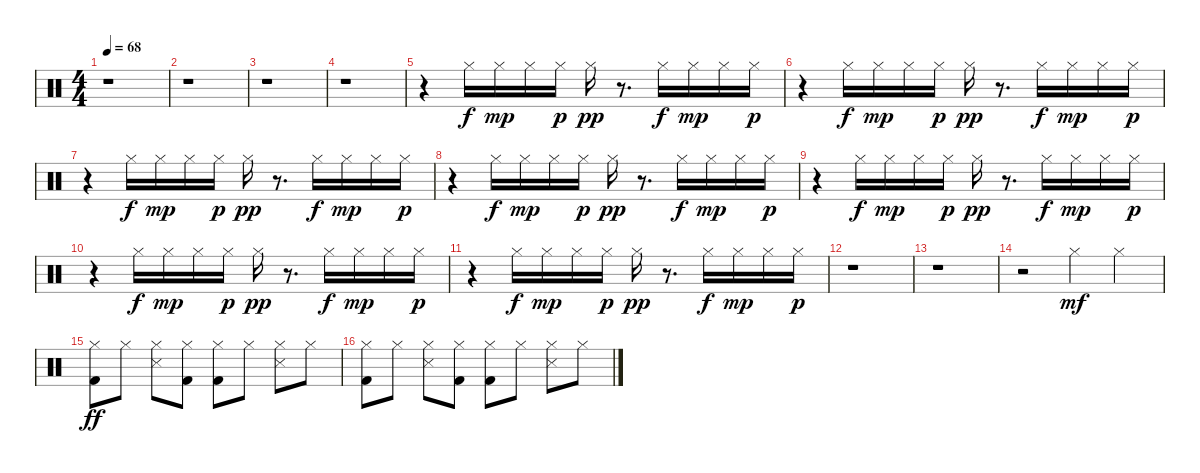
\track "" {instrument percussion}
\staff {score}
\articulation defaults
\ts (4 4)
\tempo 68
\clef neutral
\ks c
r.1{dy mf} |
r.1 |
r.1 |
r.1 |
r.4 "Hi-Hat (closed)".16{dy f} "Hi-Hat (closed)".16{dy mp} "Hi-Hat (closed)".16 "Hi-Hat (closed)".16{dy p} "Hi-Hat (closed)".16{dy pp} r.8{d} "Hi-Hat (closed)".16{dy f} "Hi-Hat (closed)".16{dy mp} "Hi-Hat (closed)".16 "Hi-Hat (closed)".16{dy p} |
r.4 "Hi-Hat (closed)".16{dy f} "Hi-Hat (closed)".16{dy mp} "Hi-Hat (closed)".16 "Hi-Hat (closed)".16{dy p} "Hi-Hat (closed)".16{dy pp} r.8{d} "Hi-Hat (closed)".16{dy f} "Hi-Hat (closed)".16{dy mp} "Hi-Hat (closed)".16 "Hi-Hat (closed)".16{dy p} |
r.4 "Hi-Hat (closed)".16{dy f} "Hi-Hat (closed)".16{dy mp} "Hi-Hat (closed)".16 "Hi-Hat (closed)".16{dy p} "Hi-Hat (closed)".16{dy pp} r.8{d} "Hi-Hat (closed)".16{dy f} "Hi-Hat (closed)".16{dy mp} "Hi-Hat (closed)".16 "Hi-Hat (closed)".16{dy p} |
r.4 "Hi-Hat (closed)".16{dy f} "Hi-Hat (closed)".16{dy mp} "Hi-Hat (closed)".16 "Hi-Hat (closed)".16{dy p} "Hi-Hat (closed)".16{dy pp} r.8{d} "Hi-Hat (closed)".16{dy f} "Hi-Hat (closed)".16{dy mp} "Hi-Hat (closed)".16 "Hi-Hat (closed)".16{dy p} |
r.4 "Hi-Hat (closed)".16{dy f} "Hi-Hat (closed)".16{dy mp} "Hi-Hat (closed)".16 "Hi-Hat (closed)".16{dy p} "Hi-Hat (closed)".16{dy pp} r.8{d} "Hi-Hat (closed)".16{dy f} "Hi-Hat (closed)".16{dy mp} "Hi-Hat (closed)".16 "Hi-Hat (closed)".16{dy p} |
r.4 "Hi-Hat (closed)".16{dy f} "Hi-Hat (closed)".16{dy mp} "Hi-Hat (closed)".16 "Hi-Hat (closed)".16{dy p} "Hi-Hat (closed)".16{dy pp} r.8{d} "Hi-Hat (closed)".16{dy f} "Hi-Hat (closed)".16{dy mp} "Hi-Hat (closed)".16 "Hi-Hat (closed)".16{dy p} |
r.4 "Hi-Hat (closed)".16{dy f} "Hi-Hat (closed)".16{dy mp} "Hi-Hat (closed)".16 "Hi-Hat (closed)".16{dy p} "Hi-Hat (closed)".16{dy pp} r.8{d} "Hi-Hat (closed)".16{dy f} "Hi-Hat (closed)".16{dy mp} "Hi-Hat (closed)".16 "Hi-Hat (closed)".16{dy p} |
r.1 |
r.1 |
r.2 "Hi-Hat (closed)".4{dy mf} "Hi-Hat (closed)".4 |
("Kick (hit) 2" "Hi-Hat (closed)").8{dy ff} "Hi-Hat (closed)".8 ("Snare (side stick) 3" "Hi-Hat (closed)").8 ("Kick (hit) 2" "Hi-Hat (closed)").8 ("Kick (hit) 2" "Hi-Hat (closed)").8 "Hi-Hat (closed)".8 ("Snare (side stick) 3" "Hi-Hat (closed)").8 "Hi-Hat (closed)".8 |
("Kick (hit) 2" "Hi-Hat (closed)").8 "Hi-Hat (closed)".8 ("Snare (side stick) 3" "Hi-Hat (closed)").8 ("Kick (hit) 2" "Hi-Hat (closed)").8 ("Kick (hit) 2" "Hi-Hat (closed)").8 "Hi-Hat (closed)".8 ("Snare (side stick) 3" "Hi-Hat (closed)").8 "Hi-Hat (closed)".8
